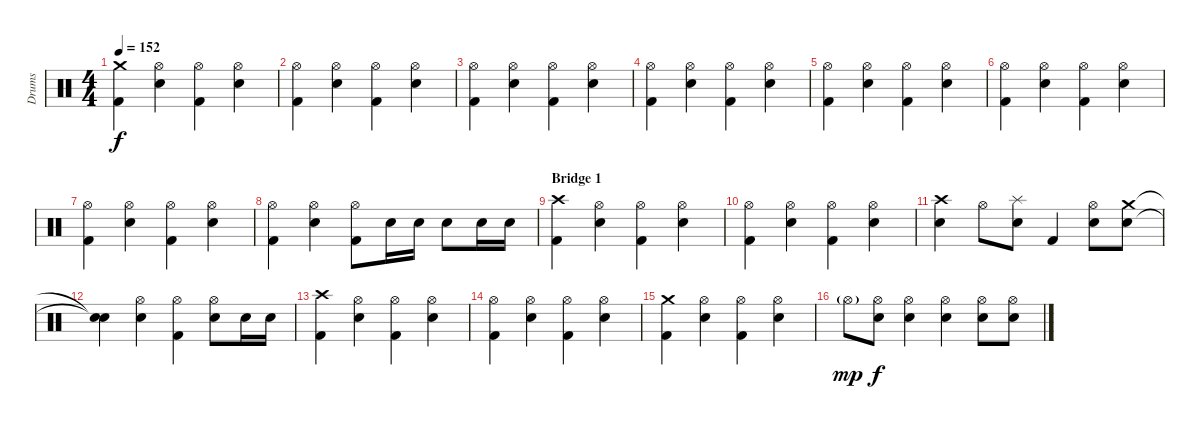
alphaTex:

\track ("Drums" "Drums") {instrument percussion}
\staff {score}
\articulation defaults
\ts (4 4)
\tempo 152
\clef neutral
\ks c
("Crash medium (hit)" "Kick (hit) 2").4{dy f volume 14} ("Hi-Hat (open)" "Snare (hit) 2").4 ("Hi-Hat (open)" "Kick (hit) 2").4 ("Hi-Hat (open)" "Snare (hit) 2").4 |
("Hi-Hat (open)" "Kick (hit) 2").4 ("Hi-Hat (open)" "Snare (hit) 2").4 ("Hi-Hat (open)" "Kick (hit) 2").4 ("Hi-Hat (open)" "Snare (hit) 2").4 |
("Hi-Hat (open)" "Kick (hit) 2").4 ("Hi-Hat (open)" "Snare (hit) 2").4 ("Hi-Hat (open)" "Kick (hit) 2").4 ("Hi-Hat (open)" "Snare (hit) 2").4 |
("Hi-Hat (open)" "Kick (hit) 2").4 ("Hi-Hat (open)" "Snare (hit) 2").4 ("Hi-Hat (open)" "Kick (hit) 2").4 ("Hi-Hat (open)" "Snare (hit) 2").4 |
("Hi-Hat (open)" "Kick (hit) 2").4 ("Hi-Hat (open)" "Snare (hit) 2").4 ("Hi-Hat (open)" "Kick (hit) 2").4 ("Hi-Hat (open)" "Snare (hit) 2").4 |
("Hi-Hat (open)" "Kick (hit) 2").4 ("Hi-Hat (open)" "Snare (hit) 2").4 ("Hi-Hat (open)" "Kick (hit) 2").4 ("Hi-Hat (open)" "Snare (hit) 2").4 |
("Hi-Hat (open)" "Kick (hit) 2").4 ("Hi-Hat (open)" "Snare (hit) 2").4 ("Hi-Hat (open)" "Kick (hit) 2").4 ("Hi-Hat (open)" "Snare (hit) 2").4 |
("Hi-Hat (open)" "Kick (hit) 2").4 ("Hi-Hat (open)" "Snare (hit) 2").4 ("Hi-Hat (open)" "Kick (hit) 2").8 "Snare (hit) 2".16 "Snare (hit) 2".16 "Snare (hit) 2".8 "Snare (hit) 2".16 "Snare (hit) 2".16 |
\section ("" "Bridge 1")
("Crash high (hit)" "Kick (hit) 2").4 ("Hi-Hat (open)" "Snare (hit) 2").4 ("Hi-Hat (open)" "Kick (hit) 2").4 ("Hi-Hat (open)" "Snare (hit) 2").4 |
("Hi-Hat (open)" "Kick (hit) 2").4 ("Hi-Hat (open)" "Snare (hit) 2").4 ("Hi-Hat (open)" "Kick (hit) 2").4 ("Hi-Hat (open)" "Snare (hit) 2").4 |
("Crash high (hit)" "Snare (hit) 2").4 "Hi-Hat (open)".8 ("Splash (hit)" "Snare (hit) 2").8 "Kick (hit) 2".4 ("Hi-Hat (open)" "Snare (hit) 2").8 ("Crash medium (hit)" "Snare (hit) 2").8 |
("Snare (hit)"{t} "Snare (hit)"{t}).4 ("Hi-Hat (open)" "Snare (hit) 2").4 ("Hi-Hat (open)" "Kick (hit) 2").4 ("Hi-Hat (open)" "Snare (hit) 2").8 "Snare (hit) 2".16 "Snare (hit) 2".16 |
("Crash high (hit)" "Kick (hit) 2").4 ("Hi-Hat (open)" "Snare (hit) 2").4 ("Hi-Hat (open)" "Kick (hit) 2").4 ("Hi-Hat (open)" "Snare (hit) 2").4 |
("Hi-Hat (open)" "Kick (hit) 2").4 ("Hi-Hat (open)" "Snare (hit) 2").4 ("Hi-Hat (open)" "Kick (hit) 2").4 ("Hi-Hat (open)" "Snare (hit) 2").4 |
("Crash medium (hit)" "Kick (hit) 2").4 ("Hi-Hat (open)" "Snare (hit) 2").4 ("Hi-Hat (open)" "Kick (hit) 2").4 ("Hi-Hat (open)" "Snare (hit) 2").4 |
"Hi-Hat (open)"{g}.8{dy mp} ("Hi-Hat (open)" "Snare (hit) 2").8{dy f} ("Hi-Hat (open)" "Snare (hit) 2").4 ("Hi-Hat (open)" "Snare (hit) 2").4 ("Hi-Hat (open)" "Snare (hit) 2").8 ("Hi-Hat (open)" "Snare (hit) 2").8
